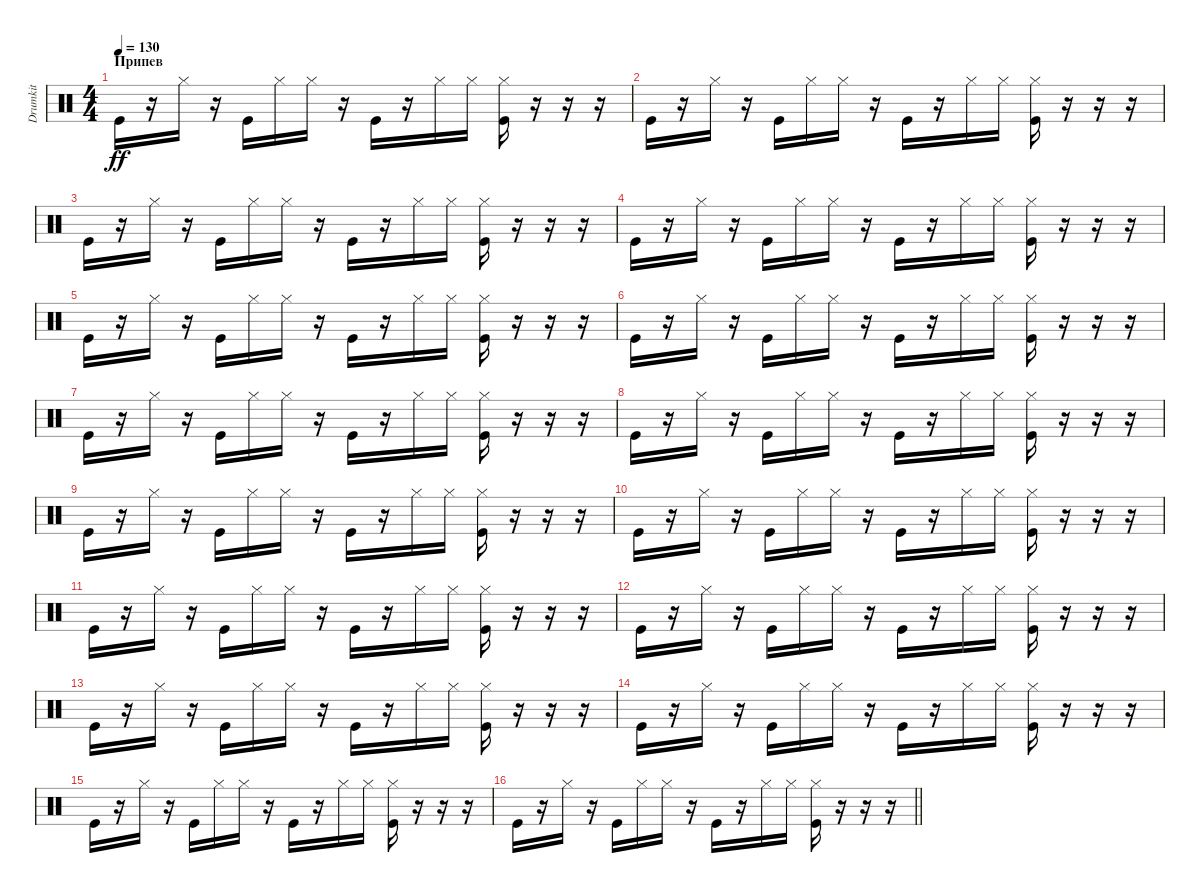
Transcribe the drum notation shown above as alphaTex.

\track ("Drumkit" "Drumkit") {instrument percussion}
\staff {score}
\articulation defaults
\ts (4 4)
\section ("" "Припев")
\tempo 130
\clef neutral
\ks c "Kick (hit)".16{dy ff}
r.16 "Hi-Hat (closed)".16 r.16 "Kick (hit)".16 "Hi-Hat (closed)".16 "Hi-Hat (closed)".16 r.16 "Kick (hit)".16 r.16 "Hi-Hat (closed)".16 "Hi-Hat (closed)".16 ("Hi-Hat (closed)" "Kick (hit)").16 r.16 r.16 r.16 |
"Kick (hit)".16 r.16 "Hi-Hat (closed)".16 r.16 "Kick (hit)".16 "Hi-Hat (closed)".16 "Hi-Hat (closed)".16 r.16 "Kick (hit)".16 r.16 "Hi-Hat (closed)".16 "Hi-Hat (closed)".16 ("Hi-Hat (closed)" "Kick (hit)").16 r.16 r.16 r.16 |
"Kick (hit)".16 r.16 "Hi-Hat (closed)".16 r.16 "Kick (hit)".16 "Hi-Hat (closed)".16 "Hi-Hat (closed)".16 r.16 "Kick (hit)".16 r.16 "Hi-Hat (closed)".16 "Hi-Hat (closed)".16 ("Hi-Hat (closed)" "Kick (hit)").16 r.16 r.16 r.16 |
"Kick (hit)".16 r.16 "Hi-Hat (closed)".16 r.16 "Kick (hit)".16 "Hi-Hat (closed)".16 "Hi-Hat (closed)".16 r.16 "Kick (hit)".16 r.16 "Hi-Hat (closed)".16 "Hi-Hat (closed)".16 ("Hi-Hat (closed)" "Kick (hit)").16 r.16 r.16 r.16 |
"Kick (hit)".16 r.16 "Hi-Hat (closed)".16 r.16 "Kick (hit)".16 "Hi-Hat (closed)".16 "Hi-Hat (closed)".16 r.16 "Kick (hit)".16 r.16 "Hi-Hat (closed)".16 "Hi-Hat (closed)".16 ("Hi-Hat (closed)" "Kick (hit)").16 r.16 r.16 r.16 |
"Kick (hit)".16 r.16 "Hi-Hat (closed)".16 r.16 "Kick (hit)".16 "Hi-Hat (closed)".16 "Hi-Hat (closed)".16 r.16 "Kick (hit)".16 r.16 "Hi-Hat (closed)".16 "Hi-Hat (closed)".16 ("Hi-Hat (closed)" "Kick (hit)").16 r.16 r.16 r.16 |
"Kick (hit)".16 r.16 "Hi-Hat (closed)".16 r.16 "Kick (hit)".16 "Hi-Hat (closed)".16 "Hi-Hat (closed)".16 r.16 "Kick (hit)".16 r.16 "Hi-Hat (closed)".16 "Hi-Hat (closed)".16 ("Hi-Hat (closed)" "Kick (hit)").16 r.16 r.16 r.16 |
"Kick (hit)".16 r.16 "Hi-Hat (closed)".16 r.16 "Kick (hit)".16 "Hi-Hat (closed)".16 "Hi-Hat (closed)".16 r.16 "Kick (hit)".16 r.16 "Hi-Hat (closed)".16 "Hi-Hat (closed)".16 ("Hi-Hat (closed)" "Kick (hit)").16 r.16 r.16 r.16 |
"Kick (hit)".16 r.16 "Hi-Hat (closed)".16 r.16 "Kick (hit)".16 "Hi-Hat (closed)".16 "Hi-Hat (closed)".16 r.16 "Kick (hit)".16 r.16 "Hi-Hat (closed)".16 "Hi-Hat (closed)".16 ("Hi-Hat (closed)" "Kick (hit)").16 r.16 r.16 r.16 |
"Kick (hit)".16 r.16 "Hi-Hat (closed)".16 r.16 "Kick (hit)".16 "Hi-Hat (closed)".16 "Hi-Hat (closed)".16 r.16 "Kick (hit)".16 r.16 "Hi-Hat (closed)".16 "Hi-Hat (closed)".16 ("Hi-Hat (closed)" "Kick (hit)").16 r.16 r.16 r.16 |
"Kick (hit)".16 r.16 "Hi-Hat (closed)".16 r.16 "Kick (hit)".16 "Hi-Hat (closed)".16 "Hi-Hat (closed)".16 r.16 "Kick (hit)".16 r.16 "Hi-Hat (closed)".16 "Hi-Hat (closed)".16 ("Hi-Hat (closed)" "Kick (hit)").16 r.16 r.16 r.16 |
"Kick (hit)".16 r.16 "Hi-Hat (closed)".16 r.16 "Kick (hit)".16 "Hi-Hat (closed)".16 "Hi-Hat (closed)".16 r.16 "Kick (hit)".16 r.16 "Hi-Hat (closed)".16 "Hi-Hat (closed)".16 ("Hi-Hat (closed)" "Kick (hit)").16 r.16 r.16 r.16 |
"Kick (hit)".16 r.16 "Hi-Hat (closed)".16 r.16 "Kick (hit)".16 "Hi-Hat (closed)".16 "Hi-Hat (closed)".16 r.16 "Kick (hit)".16 r.16 "Hi-Hat (closed)".16 "Hi-Hat (closed)".16 ("Hi-Hat (closed)" "Kick (hit)").16 r.16 r.16 r.16 |
"Kick (hit)".16 r.16 "Hi-Hat (closed)".16 r.16 "Kick (hit)".16 "Hi-Hat (closed)".16 "Hi-Hat (closed)".16 r.16 "Kick (hit)".16 r.16 "Hi-Hat (closed)".16 "Hi-Hat (closed)".16 ("Hi-Hat (closed)" "Kick (hit)").16 r.16 r.16 r.16 |
"Kick (hit)".16 r.16 "Hi-Hat (closed)".16 r.16 "Kick (hit)".16 "Hi-Hat (closed)".16 "Hi-Hat (closed)".16 r.16 "Kick (hit)".16 r.16 "Hi-Hat (closed)".16 "Hi-Hat (closed)".16 ("Hi-Hat (closed)" "Kick (hit)").16 r.16 r.16 r.16 |
\barLineRight lightlight "Kick (hit)".16
r.16 "Hi-Hat (closed)".16 r.16 "Kick (hit)".16 "Hi-Hat (closed)".16 "Hi-Hat (closed)".16 r.16 "Kick (hit)".16 r.16 "Hi-Hat (closed)".16 "Hi-Hat (closed)".16 ("Hi-Hat (closed)" "Kick (hit)").16 r.16 r.16 r.16
